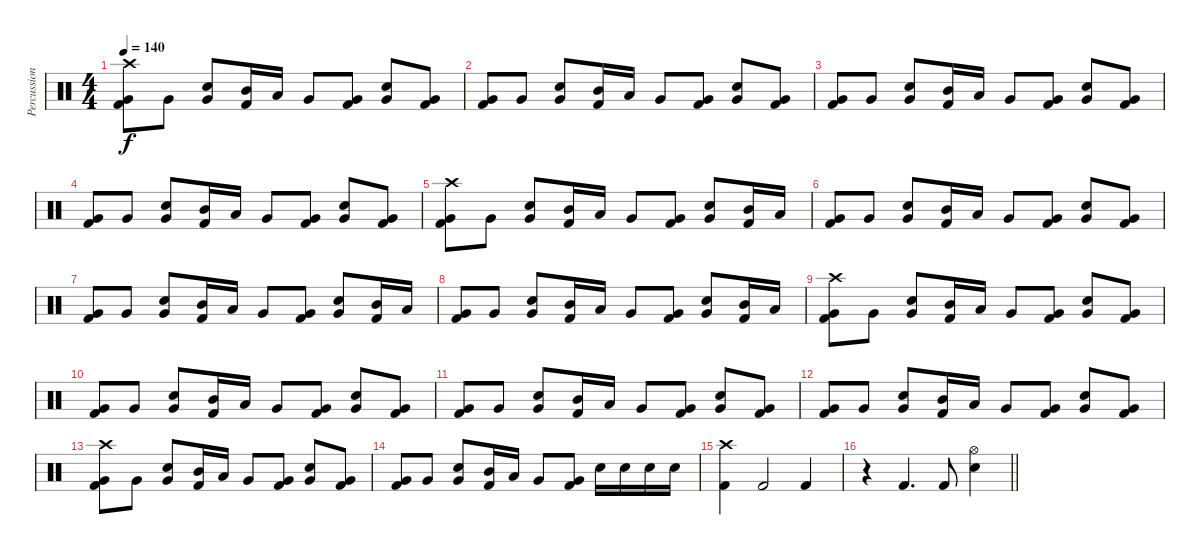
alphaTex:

\track ("Percussion" "Percussion") {instrument percussion}
\staff {score}
\articulation defaults
\ts (4 4)
\tempo 140
\clef neutral
\ks c
("Crash high (hit)" "Very Low Tom (hit)" "Kick (hit) 2").8{dy f} "Very Low Tom (hit)".8 ("Very Low Tom (hit)" "Electric Snare (hit)").8 ("Mid Tom (hit)" "Kick (hit) 2").16 "Low Tom (hit)".16 "Very Low Tom (hit)".8 ("Very Low Tom (hit)" "Kick (hit) 2").8 ("Very Low Tom (hit)" "Electric Snare (hit)").8 ("Very Low Tom (hit)" "Kick (hit) 2").8 |
("Very Low Tom (hit)" "Kick (hit) 2").8 "Very Low Tom (hit)".8 ("Very Low Tom (hit)" "Electric Snare (hit)").8 ("Mid Tom (hit)" "Kick (hit) 2").16 "Low Tom (hit)".16 "Very Low Tom (hit)".8 ("Very Low Tom (hit)" "Kick (hit) 2").8 ("Very Low Tom (hit)" "Electric Snare (hit)").8 ("Very Low Tom (hit)" "Kick (hit) 2").8 |
("Very Low Tom (hit)" "Kick (hit) 2").8 "Very Low Tom (hit)".8 ("Very Low Tom (hit)" "Electric Snare (hit)").8 ("Mid Tom (hit)" "Kick (hit) 2").16 "Low Tom (hit)".16 "Very Low Tom (hit)".8 ("Very Low Tom (hit)" "Kick (hit) 2").8 ("Very Low Tom (hit)" "Electric Snare (hit)").8 ("Very Low Tom (hit)" "Kick (hit) 2").8 |
("Very Low Tom (hit)" "Kick (hit) 2").8 "Very Low Tom (hit)".8 ("Very Low Tom (hit)" "Electric Snare (hit)").8 ("Mid Tom (hit)" "Kick (hit) 2").16 "Low Tom (hit)".16 "Very Low Tom (hit)".8 ("Very Low Tom (hit)" "Kick (hit) 2").8 ("Very Low Tom (hit)" "Electric Snare (hit)").8 ("Very Low Tom (hit)" "Kick (hit) 2").8 |
("Crash high (hit)" "Very Low Tom (hit)" "Kick (hit) 2").8 "Very Low Tom (hit)".8 ("Very Low Tom (hit)" "Electric Snare (hit)").8 ("Mid Tom (hit)" "Kick (hit) 2").16 "Low Tom (hit)".16 "Very Low Tom (hit)".8 ("Very Low Tom (hit)" "Kick (hit) 2").8 ("Very Low Tom (hit)" "Electric Snare (hit)").8 ("Mid Tom (hit)" "Kick (hit) 2").16 "Low Tom (hit)".16 |
("Very Low Tom (hit)" "Kick (hit) 2").8 "Very Low Tom (hit)".8 ("Very Low Tom (hit)" "Electric Snare (hit)").8 ("Mid Tom (hit)" "Kick (hit) 2").16 "Low Tom (hit)".16 "Very Low Tom (hit)".8 ("Very Low Tom (hit)" "Kick (hit) 2").8 ("Very Low Tom (hit)" "Electric Snare (hit)").8 ("Very Low Tom (hit)" "Kick (hit) 2").8 |
("Very Low Tom (hit)" "Kick (hit) 2").8 "Very Low Tom (hit)".8 ("Very Low Tom (hit)" "Electric Snare (hit)").8 ("Mid Tom (hit)" "Kick (hit) 2").16 "Low Tom (hit)".16 "Very Low Tom (hit)".8 ("Very Low Tom (hit)" "Kick (hit) 2").8 ("Very Low Tom (hit)" "Electric Snare (hit)").8 ("Mid Tom (hit)" "Kick (hit) 2").16 "Low Tom (hit)".16 |
("Very Low Tom (hit)" "Kick (hit) 2").8 "Very Low Tom (hit)".8 ("Very Low Tom (hit)" "Electric Snare (hit)").8 ("Mid Tom (hit)" "Kick (hit) 2").16 "Low Tom (hit)".16 "Very Low Tom (hit)".8 ("Very Low Tom (hit)" "Kick (hit) 2").8 ("Very Low Tom (hit)" "Electric Snare (hit)").8 ("Mid Tom (hit)" "Kick (hit) 2").16 "Low Tom (hit)".16 |
("Crash high (hit)" "Very Low Tom (hit)" "Kick (hit) 2").8 "Very Low Tom (hit)".8 ("Very Low Tom (hit)" "Electric Snare (hit)").8 ("Mid Tom (hit)" "Kick (hit) 2").16 "Low Tom (hit)".16 "Very Low Tom (hit)".8 ("Very Low Tom (hit)" "Kick (hit) 2").8 ("Very Low Tom (hit)" "Electric Snare (hit)").8 ("Very Low Tom (hit)" "Kick (hit) 2").8 |
("Very Low Tom (hit)" "Kick (hit) 2").8 "Very Low Tom (hit)".8 ("Very Low Tom (hit)" "Electric Snare (hit)").8 ("Mid Tom (hit)" "Kick (hit) 2").16 "Low Tom (hit)".16 "Very Low Tom (hit)".8 ("Very Low Tom (hit)" "Kick (hit) 2").8 ("Very Low Tom (hit)" "Electric Snare (hit)").8 ("Very Low Tom (hit)" "Kick (hit) 2").8 |
("Very Low Tom (hit)" "Kick (hit) 2").8 "Very Low Tom (hit)".8 ("Very Low Tom (hit)" "Electric Snare (hit)").8 ("Mid Tom (hit)" "Kick (hit) 2").16 "Low Tom (hit)".16 "Very Low Tom (hit)".8 ("Very Low Tom (hit)" "Kick (hit) 2").8 ("Very Low Tom (hit)" "Electric Snare (hit)").8 ("Very Low Tom (hit)" "Kick (hit) 2").8 |
("Very Low Tom (hit)" "Kick (hit) 2").8 "Very Low Tom (hit)".8 ("Very Low Tom (hit)" "Electric Snare (hit)").8 ("Mid Tom (hit)" "Kick (hit) 2").16 "Low Tom (hit)".16 "Very Low Tom (hit)".8 ("Very Low Tom (hit)" "Kick (hit) 2").8 ("Very Low Tom (hit)" "Electric Snare (hit)").8 ("Very Low Tom (hit)" "Kick (hit) 2").8 |
("Crash high (hit)" "Very Low Tom (hit)" "Kick (hit) 2").8 "Very Low Tom (hit)".8 ("Very Low Tom (hit)" "Electric Snare (hit)").8 ("Mid Tom (hit)" "Kick (hit) 2").16 "Low Tom (hit)".16 "Very Low Tom (hit)".8 ("Very Low Tom (hit)" "Kick (hit) 2").8 ("Very Low Tom (hit)" "Electric Snare (hit)").8 ("Very Low Tom (hit)" "Kick (hit) 2").8 |
("Very Low Tom (hit)" "Kick (hit) 2").8 "Very Low Tom (hit)".8 ("Very Low Tom (hit)" "Electric Snare (hit)").8 ("Mid Tom (hit)" "Kick (hit) 2").16 "Low Tom (hit)".16 "Very Low Tom (hit)".8 ("Very Low Tom (hit)" "Kick (hit) 2").8 "Electric Snare (hit)".16 "Electric Snare (hit)".16 "Electric Snare (hit)".16 "Electric Snare (hit)".16 |
("Crash high (hit)" "Kick (hit) 2").4 "Kick (hit) 2".2 "Kick (hit) 2".4 |
\barLineRight lightlight
r.4 "Kick (hit) 2".4{d} "Kick (hit) 2".8 ("Hi-Hat (open)" "Electric Snare (hit)").4
